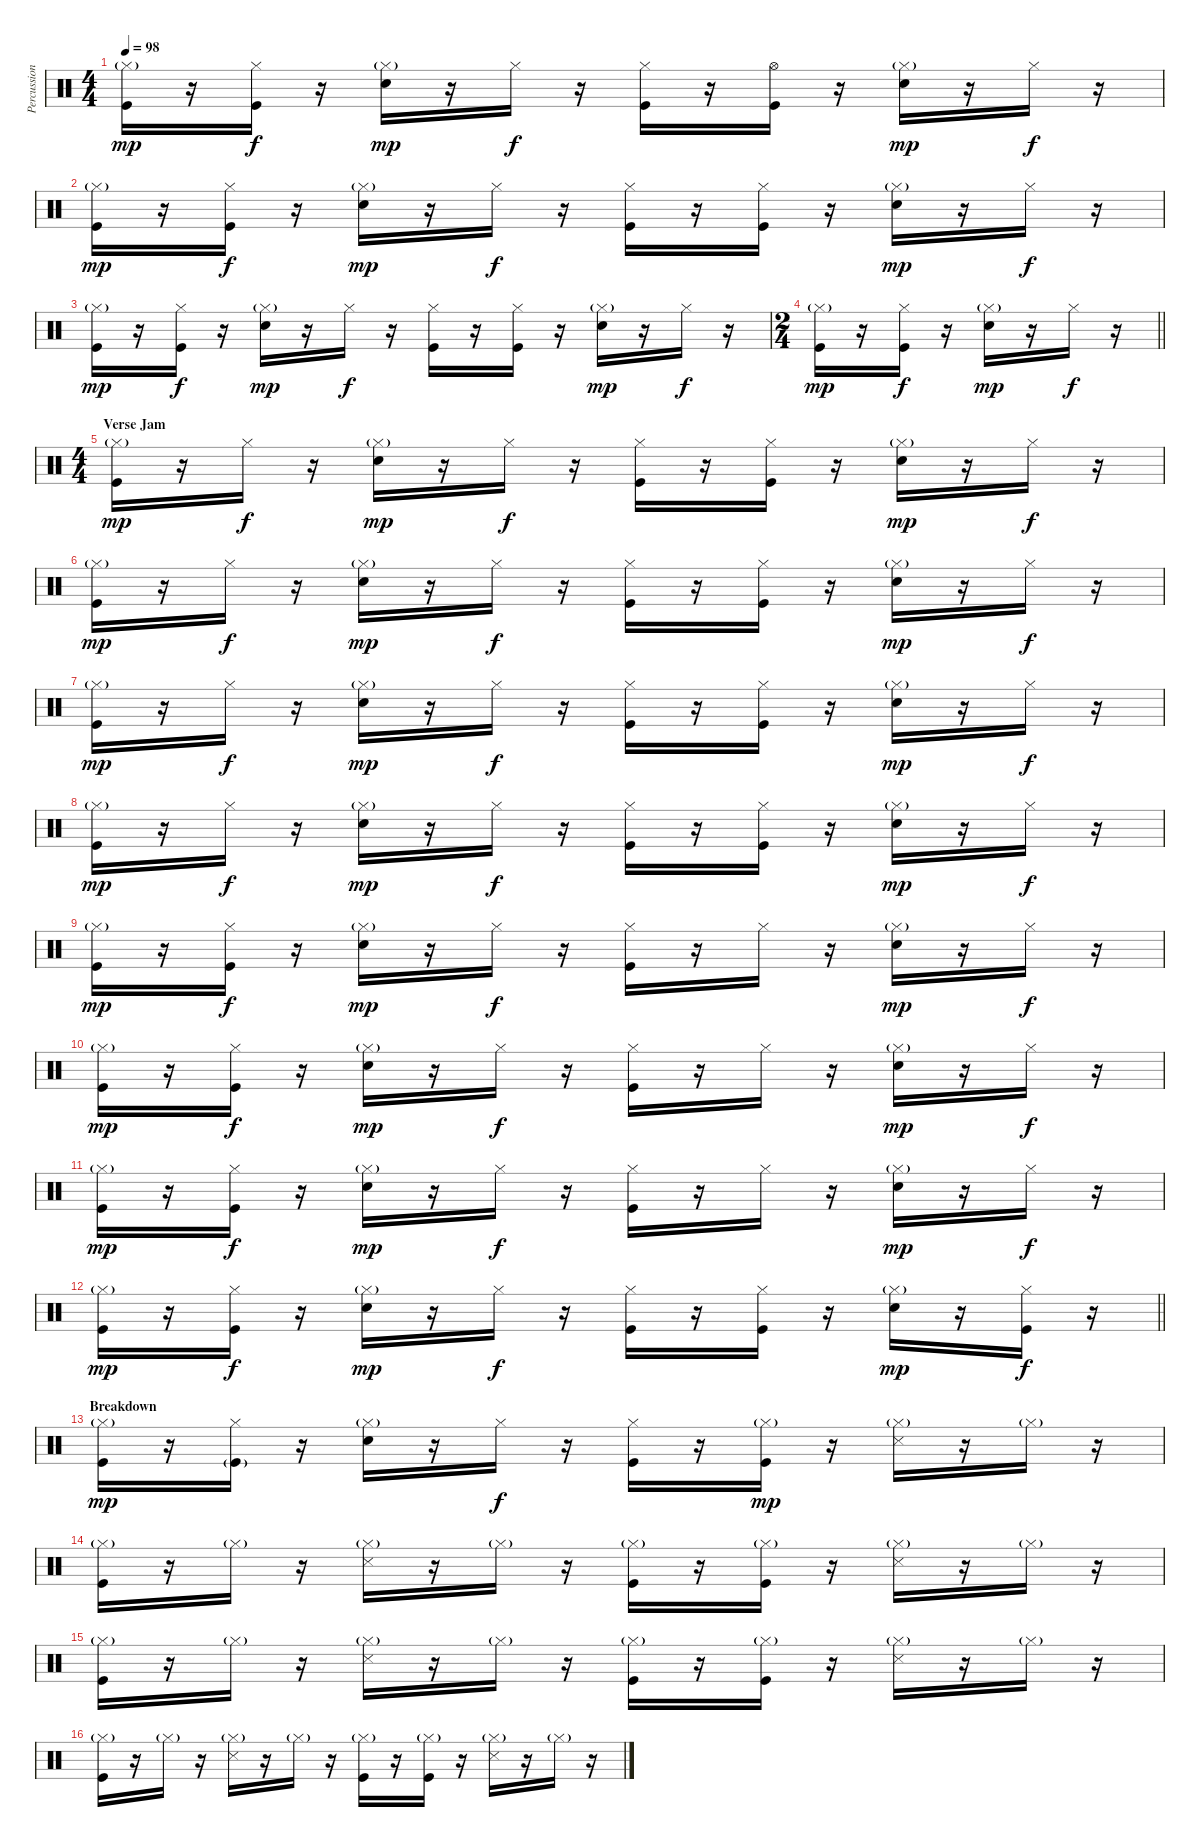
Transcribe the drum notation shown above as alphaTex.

\track ("Percussion" "Percussion") {instrument percussion}
\staff {score}
\articulation defaults
\ts (4 4)
\tempo 98
\clef neutral
\ks c
("Hi-Hat (closed)"{g} "Kick (hit)").16{dy mp} r.16 ("Hi-Hat (closed)" "Kick (hit)").16{dy f} r.16 ("Hi-Hat (closed)"{g} "Snare (hit) 2").16{dy mp} r.16 "Hi-Hat (closed)".16{dy f} r.16 ("Hi-Hat (closed)" "Kick (hit)").16 r.16 ("Hi-Hat (open)" "Kick (hit)").16 r.16 ("Hi-Hat (closed)"{g} "Snare (hit) 2").16{dy mp} r.16 "Hi-Hat (closed)".16{dy f} r.16 |
("Hi-Hat (closed)"{g} "Kick (hit)").16{dy mp} r.16 ("Hi-Hat (closed)" "Kick (hit)").16{dy f} r.16 ("Hi-Hat (closed)"{g} "Snare (hit) 2").16{dy mp} r.16 "Hi-Hat (closed)".16{dy f} r.16 ("Hi-Hat (closed)" "Kick (hit)").16 r.16 ("Hi-Hat (closed)" "Kick (hit)").16 r.16 ("Hi-Hat (closed)"{g} "Snare (hit) 2").16{dy mp} r.16 "Hi-Hat (closed)".16{dy f} r.16 |
("Hi-Hat (closed)"{g} "Kick (hit)").16{dy mp} r.16 ("Hi-Hat (closed)" "Kick (hit)").16{dy f} r.16 ("Hi-Hat (closed)"{g} "Snare (hit) 2").16{dy mp} r.16 "Hi-Hat (closed)".16{dy f} r.16 ("Hi-Hat (closed)" "Kick (hit)").16 r.16 ("Hi-Hat (closed)" "Kick (hit)").16 r.16 ("Hi-Hat (closed)"{g} "Snare (hit) 2").16{dy mp} r.16 "Hi-Hat (closed)".16{dy f} r.16 |
\ts (2 4)
\barLineRight lightlight
("Hi-Hat (closed)"{g} "Kick (hit)").16{dy mp} r.16 ("Hi-Hat (closed)" "Kick (hit)").16{dy f} r.16 ("Hi-Hat (closed)"{g} "Snare (hit) 2").16{dy mp} r.16 "Hi-Hat (closed)".16{dy f} r.16 |
\ts (4 4)
\section ("" "Verse Jam")
("Hi-Hat (closed)"{g} "Kick (hit)").16{dy mp} r.16 "Hi-Hat (closed)".16{dy f} r.16 ("Hi-Hat (closed)"{g} "Snare (hit) 2").16{dy mp} r.16 "Hi-Hat (closed)".16{dy f} r.16 ("Hi-Hat (closed)" "Kick (hit)").16 r.16 ("Hi-Hat (closed)" "Kick (hit)").16 r.16 ("Hi-Hat (closed)"{g} "Snare (hit) 2").16{dy mp} r.16 "Hi-Hat (closed)".16{dy f} r.16 |
("Hi-Hat (closed)"{g} "Kick (hit)").16{dy mp} r.16 "Hi-Hat (closed)".16{dy f} r.16 ("Hi-Hat (closed)"{g} "Snare (hit) 2").16{dy mp} r.16 "Hi-Hat (closed)".16{dy f} r.16 ("Hi-Hat (closed)" "Kick (hit)").16 r.16 ("Hi-Hat (closed)" "Kick (hit)").16 r.16 ("Hi-Hat (closed)"{g} "Snare (hit) 2").16{dy mp} r.16 "Hi-Hat (closed)".16{dy f} r.16 |
("Hi-Hat (closed)"{g} "Kick (hit)").16{dy mp} r.16 "Hi-Hat (closed)".16{dy f} r.16 ("Hi-Hat (closed)"{g} "Snare (hit) 2").16{dy mp} r.16 "Hi-Hat (closed)".16{dy f} r.16 ("Hi-Hat (closed)" "Kick (hit)").16 r.16 ("Hi-Hat (closed)" "Kick (hit)").16 r.16 ("Hi-Hat (closed)"{g} "Snare (hit) 2").16{dy mp} r.16 "Hi-Hat (closed)".16{dy f} r.16 |
("Hi-Hat (closed)"{g} "Kick (hit)").16{dy mp} r.16 "Hi-Hat (closed)".16{dy f} r.16 ("Hi-Hat (closed)"{g} "Snare (hit) 2").16{dy mp} r.16 "Hi-Hat (closed)".16{dy f} r.16 ("Hi-Hat (closed)" "Kick (hit)").16 r.16 ("Hi-Hat (closed)" "Kick (hit)").16 r.16 ("Hi-Hat (closed)"{g} "Snare (hit) 2").16{dy mp} r.16 "Hi-Hat (closed)".16{dy f} r.16 |
("Hi-Hat (closed)"{g} "Kick (hit)").16{dy mp} r.16 ("Hi-Hat (closed)" "Kick (hit)").16{dy f} r.16 ("Hi-Hat (closed)"{g} "Snare (hit) 2").16{dy mp} r.16 "Hi-Hat (closed)".16{dy f} r.16 ("Hi-Hat (closed)" "Kick (hit)").16 r.16 "Hi-Hat (closed)".16 r.16 ("Hi-Hat (closed)"{g} "Snare (hit) 2").16{dy mp} r.16 "Hi-Hat (closed)".16{dy f} r.16 |
("Hi-Hat (closed)"{g} "Kick (hit)").16{dy mp} r.16 ("Hi-Hat (closed)" "Kick (hit)").16{dy f} r.16 ("Hi-Hat (closed)"{g} "Snare (hit) 2").16{dy mp} r.16 "Hi-Hat (closed)".16{dy f} r.16 ("Hi-Hat (closed)" "Kick (hit)").16 r.16 "Hi-Hat (closed)".16 r.16 ("Hi-Hat (closed)"{g} "Snare (hit) 2").16{dy mp} r.16 "Hi-Hat (closed)".16{dy f} r.16 |
("Hi-Hat (closed)"{g} "Kick (hit)").16{dy mp} r.16 ("Hi-Hat (closed)" "Kick (hit)").16{dy f} r.16 ("Hi-Hat (closed)"{g} "Snare (hit) 2").16{dy mp} r.16 "Hi-Hat (closed)".16{dy f} r.16 ("Hi-Hat (closed)" "Kick (hit)").16 r.16 "Hi-Hat (closed)".16 r.16 ("Hi-Hat (closed)"{g} "Snare (hit) 2").16{dy mp} r.16 "Hi-Hat (closed)".16{dy f} r.16 |
\barLineRight lightlight
("Hi-Hat (closed)"{g} "Kick (hit)").16{dy mp} r.16 ("Hi-Hat (closed)" "Kick (hit)").16{dy f} r.16 ("Hi-Hat (closed)"{g} "Snare (hit) 2").16{dy mp} r.16 "Hi-Hat (closed)".16{dy f} r.16 ("Hi-Hat (closed)" "Kick (hit)").16 r.16 ("Hi-Hat (closed)" "Kick (hit)").16 r.16 ("Hi-Hat (closed)"{g} "Snare (hit) 2").16{dy mp} r.16 ("Hi-Hat (closed)" "Kick (hit)").16{dy f} r.16 |
\section ("" "Breakdown")
("Hi-Hat (closed)"{g} "Kick (hit)").16{dy mp} r.16 ("Hi-Hat (closed)" "Kick (hit)"{g}).16 r.16 ("Hi-Hat (closed)"{g} "Snare (hit) 2").16 r.16 "Hi-Hat (closed)".16{dy f} r.16 ("Hi-Hat (closed)" "Kick (hit)").16 r.16 ("Hi-Hat (closed)"{g} "Kick (hit)").16{dy mp} r.16 ("Hi-Hat (closed)"{g} "Snare (side stick) 3").16 r.16 "Hi-Hat (closed)"{g}.16 r.16 |
("Hi-Hat (closed)"{g} "Kick (hit)").16 r.16 "Hi-Hat (closed)"{g}.16 r.16 ("Hi-Hat (closed)"{g} "Snare (side stick) 3").16 r.16 "Hi-Hat (closed)"{g}.16 r.16 ("Hi-Hat (closed)"{g} "Kick (hit)").16 r.16 ("Hi-Hat (closed)"{g} "Kick (hit)").16 r.16 ("Hi-Hat (closed)"{g} "Snare (side stick) 3").16 r.16 "Hi-Hat (closed)"{g}.16 r.16 |
("Hi-Hat (closed)"{g} "Kick (hit)").16 r.16 "Hi-Hat (closed)"{g}.16 r.16 ("Hi-Hat (closed)"{g} "Snare (side stick) 3").16 r.16 "Hi-Hat (closed)"{g}.16 r.16 ("Hi-Hat (closed)"{g} "Kick (hit)").16 r.16 ("Hi-Hat (closed)"{g} "Kick (hit)").16 r.16 ("Hi-Hat (closed)"{g} "Snare (side stick) 3").16 r.16 "Hi-Hat (closed)"{g}.16 r.16 |
("Hi-Hat (closed)"{g} "Kick (hit)").16 r.16 "Hi-Hat (closed)"{g}.16 r.16 ("Hi-Hat (closed)"{g} "Snare (side stick) 3").16 r.16 "Hi-Hat (closed)"{g}.16 r.16 ("Hi-Hat (closed)"{g} "Kick (hit)").16 r.16 ("Hi-Hat (closed)"{g} "Kick (hit)").16 r.16 ("Hi-Hat (closed)"{g} "Snare (side stick) 3").16 r.16 "Hi-Hat (closed)"{g}.16 r.16
